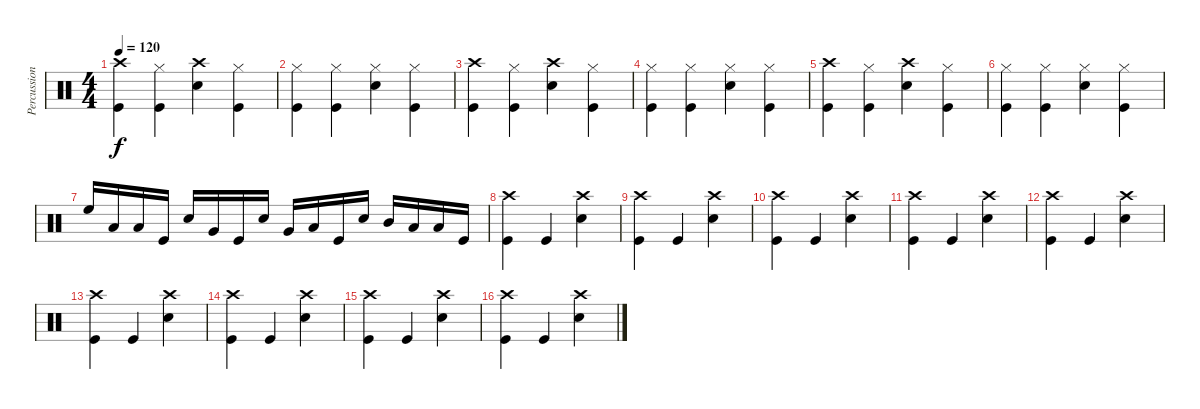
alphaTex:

\track ("Percussion" "Percussion") {instrument percussion}
\staff {score}
\articulation defaults
\ts (4 4)
\tempo 120
\clef neutral
\ks c
("Crash high (hit)" "Kick (hit)").4{dy f} ("Hi-Hat (closed)" "Kick (hit)").4 ("Crash high (hit)" "Snare (hit) 2").4 ("Hi-Hat (closed)" "Kick (hit)").4 |
("Hi-Hat (closed)" "Kick (hit)").4 ("Hi-Hat (closed)" "Kick (hit)").4 ("Hi-Hat (closed)" "Snare (hit) 2").4 ("Hi-Hat (closed)" "Kick (hit)").4 |
("Crash high (hit)" "Kick (hit)").4 ("Hi-Hat (closed)" "Kick (hit)").4 ("Crash high (hit)" "Snare (hit) 2").4 ("Hi-Hat (closed)" "Kick (hit)").4 |
("Hi-Hat (closed)" "Kick (hit)").4 ("Hi-Hat (closed)" "Kick (hit)").4 ("Hi-Hat (closed)" "Snare (hit) 2").4 ("Hi-Hat (closed)" "Kick (hit)").4 |
("Crash high (hit)" "Kick (hit)").4 ("Hi-Hat (closed)" "Kick (hit)").4 ("Crash high (hit)" "Snare (hit) 2").4 ("Hi-Hat (closed)" "Kick (hit)").4 |
("Hi-Hat (closed)" "Kick (hit)").4 ("Hi-Hat (closed)" "Kick (hit)").4 ("Hi-Hat (closed)" "Snare (hit) 2").4 ("Hi-Hat (closed)" "Kick (hit)").4 |
"High Floor Tom (hit)".16 "Low Tom (hit)".16 "Low Floor Tom (hit)".16 "Kick (hit)".16 "Snare (hit) 2".16 "Very Low Tom (hit)".16 "Kick (hit)".16 "Snare (hit) 2".16 "Very Low Tom (hit)".16 "Low Tom (hit)".16 "Kick (hit)".16 "Snare (hit) 2".16 "Mid Tom (hit)".16 "Low Floor Tom (hit)".16 "Low Floor Tom (hit)".16 "Kick (hit)".16 |
("Crash high (hit)" "Kick (hit)").4 "Kick (hit)".4 ("Crash high (hit)" "Snare (hit) 2").4 |
("Crash high (hit)" "Kick (hit)").4 "Kick (hit)".4 ("Crash high (hit)" "Snare (hit) 2").4 |
("Crash high (hit)" "Kick (hit)").4 "Kick (hit)".4 ("Crash high (hit)" "Snare (hit) 2").4 |
("Crash high (hit)" "Kick (hit)").4 "Kick (hit)".4 ("Crash high (hit)" "Snare (hit) 2").4 |
("Crash high (hit)" "Kick (hit)").4 "Kick (hit)".4 ("Crash high (hit)" "Snare (hit) 2").4 |
("Crash high (hit)" "Kick (hit)").4 "Kick (hit)".4 ("Crash high (hit)" "Snare (hit) 2").4 |
("Crash high (hit)" "Kick (hit)").4 "Kick (hit)".4 ("Crash high (hit)" "Snare (hit) 2").4 |
("Crash high (hit)" "Kick (hit)").4 "Kick (hit)".4 ("Crash high (hit)" "Snare (hit) 2").4 |
("Crash high (hit)" "Kick (hit)").4 "Kick (hit)".4 ("Crash high (hit)" "Snare (hit) 2").4
